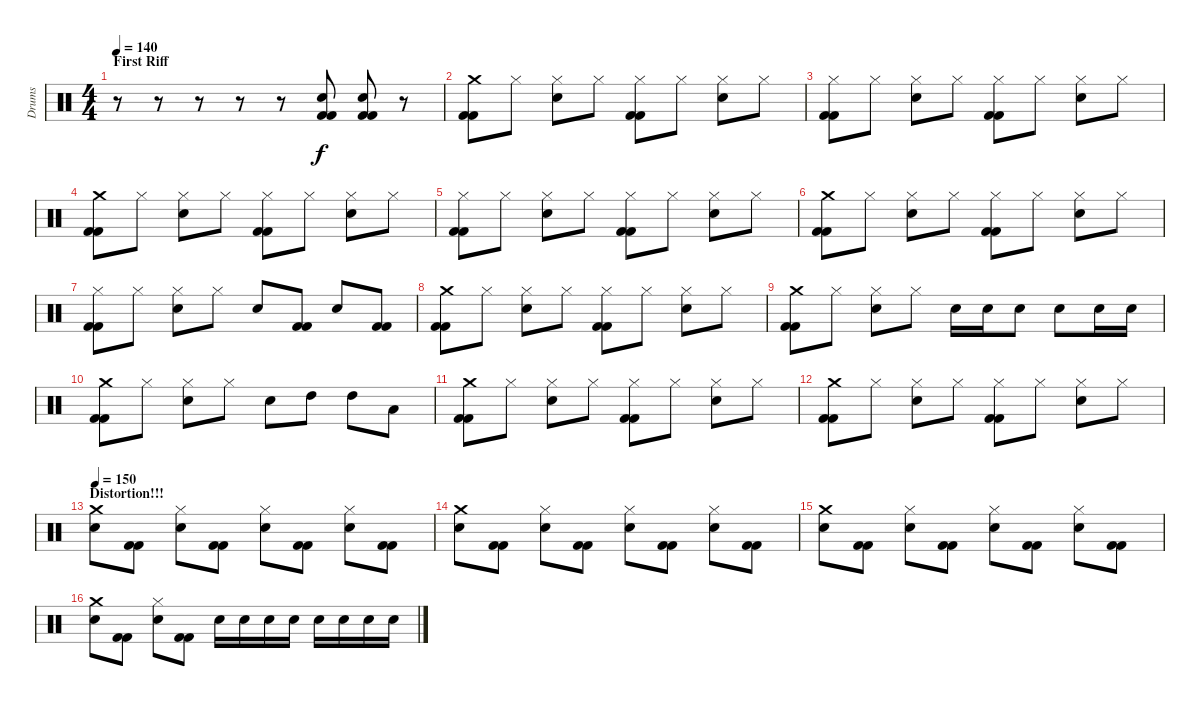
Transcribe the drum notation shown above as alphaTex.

\track ("Drums" "Drums") {instrument percussion}
\staff {score}
\articulation defaults
\ts (4 4)
\section ("" "First Riff")
\tempo 140
\clef neutral
\ks c
r.8{dy f} r.8 r.8 r.8 r.8 ("Electric Snare (hit)" "Kick (hit) 2" "Kick (hit) 2").8 ("Electric Snare (hit)" "Kick (hit) 2" "Kick (hit) 2").8 r.8 |
("Crash medium (hit)" "Kick (hit) 2" "Kick (hit) 2").8 "Hi-Hat (closed)".8 ("Electric Snare (hit)" "Hi-Hat (closed)").8 "Hi-Hat (closed)".8 ("Kick (hit) 2" "Kick (hit) 2" "Hi-Hat (closed)").8 "Hi-Hat (closed)".8 ("Hi-Hat (closed)" "Electric Snare (hit)").8 "Hi-Hat (closed)".8 |
("Hi-Hat (closed)" "Kick (hit) 2" "Kick (hit) 2").8 "Hi-Hat (closed)".8 ("Electric Snare (hit)" "Hi-Hat (closed)").8 "Hi-Hat (closed)".8 ("Kick (hit) 2" "Hi-Hat (closed)" "Kick (hit) 2").8 "Hi-Hat (closed)".8 ("Hi-Hat (closed)" "Electric Snare (hit)").8 "Hi-Hat (closed)".8 |
("Crash medium (hit)" "Kick (hit) 2" "Kick (hit) 2").8 "Hi-Hat (closed)".8 ("Electric Snare (hit)" "Hi-Hat (closed)").8 "Hi-Hat (closed)".8 ("Kick (hit) 2" "Kick (hit) 2" "Hi-Hat (closed)").8 "Hi-Hat (closed)".8 ("Hi-Hat (closed)" "Electric Snare (hit)").8 "Hi-Hat (closed)".8 |
("Hi-Hat (closed)" "Kick (hit) 2" "Kick (hit) 2").8 "Hi-Hat (closed)".8 ("Electric Snare (hit)" "Hi-Hat (closed)").8 "Hi-Hat (closed)".8 ("Kick (hit) 2" "Hi-Hat (closed)" "Kick (hit) 2").8 "Hi-Hat (closed)".8 ("Hi-Hat (closed)" "Electric Snare (hit)").8 "Hi-Hat (closed)".8 |
("Crash medium (hit)" "Kick (hit) 2" "Kick (hit) 2").8 "Hi-Hat (closed)".8 ("Electric Snare (hit)" "Hi-Hat (closed)").8 "Hi-Hat (closed)".8 ("Kick (hit) 2" "Kick (hit) 2" "Hi-Hat (closed)").8 "Hi-Hat (closed)".8 ("Hi-Hat (closed)" "Electric Snare (hit)").8 "Hi-Hat (closed)".8 |
("Hi-Hat (closed)" "Kick (hit) 2" "Kick (hit) 2").8 "Hi-Hat (closed)".8 ("Electric Snare (hit)" "Hi-Hat (closed)").8 "Hi-Hat (closed)".8 "Electric Snare (hit)".8 ("Kick (hit) 2" "Kick (hit) 2").8 "Electric Snare (hit)".8 ("Kick (hit) 2" "Kick (hit) 2").8 |
("Crash medium (hit)" "Kick (hit) 2" "Kick (hit) 2").8 "Hi-Hat (closed)".8 ("Electric Snare (hit)" "Hi-Hat (closed)").8 "Hi-Hat (closed)".8 ("Kick (hit) 2" "Kick (hit) 2" "Hi-Hat (closed)").8 "Hi-Hat (closed)".8 ("Hi-Hat (closed)" "Electric Snare (hit)").8 "Hi-Hat (closed)".8 |
("Crash medium (hit)" "Kick (hit) 2" "Kick (hit) 2").8 "Hi-Hat (closed)".8 ("Electric Snare (hit)" "Hi-Hat (closed)").8 "Hi-Hat (closed)".8 "Electric Snare (hit)".16 "Electric Snare (hit)".16 "Electric Snare (hit)".8 "Electric Snare (hit)".8 "Electric Snare (hit)".16 "Electric Snare (hit)".16 |
("Crash medium (hit)" "Kick (hit) 2" "Kick (hit) 2").8 "Hi-Hat (closed)".8 ("Electric Snare (hit)" "Hi-Hat (closed)").8 "Hi-Hat (closed)".8 "Electric Snare (hit)".8 "High Tom (hit)".8 "High Tom (hit)".8 "Low Tom (hit)".8 |
("Crash medium (hit)" "Kick (hit) 2" "Kick (hit) 2").8 "Hi-Hat (closed)".8 ("Electric Snare (hit)" "Hi-Hat (closed)").8 "Hi-Hat (closed)".8 ("Kick (hit) 2" "Kick (hit) 2" "Hi-Hat (closed)").8 "Hi-Hat (closed)".8 ("Hi-Hat (closed)" "Electric Snare (hit)").8 "Hi-Hat (closed)".8 |
("Crash medium (hit)" "Kick (hit) 2" "Kick (hit) 2").8 "Hi-Hat (closed)".8 ("Electric Snare (hit)" "Hi-Hat (closed)").8 "Hi-Hat (closed)".8 ("Kick (hit) 2" "Kick (hit) 2" "Hi-Hat (closed)").8 "Hi-Hat (closed)".8 ("Hi-Hat (closed)" "Electric Snare (hit)").8 "Hi-Hat (closed)".8 |
\section ("" "Distortion!!!")
\tempo 150
("Crash medium (hit)" "Electric Snare (hit)").8 ("Kick (hit) 2" "Kick (hit) 2").8 ("Electric Snare (hit)" "Hi-Hat (closed)").8 ("Kick (hit) 2" "Kick (hit) 2").8 ("Electric Snare (hit)" "Hi-Hat (closed)").8 ("Kick (hit) 2" "Kick (hit) 2").8 ("Electric Snare (hit)" "Hi-Hat (closed)").8 ("Kick (hit) 2" "Kick (hit) 2").8 |
("Crash medium (hit)" "Electric Snare (hit)").8 ("Kick (hit) 2" "Kick (hit) 2").8 ("Electric Snare (hit)" "Hi-Hat (closed)").8 ("Kick (hit) 2" "Kick (hit) 2").8 ("Electric Snare (hit)" "Hi-Hat (closed)").8 ("Kick (hit) 2" "Kick (hit) 2").8 ("Electric Snare (hit)" "Hi-Hat (closed)").8 ("Kick (hit) 2" "Kick (hit) 2").8 |
("Crash medium (hit)" "Electric Snare (hit)").8 ("Kick (hit) 2" "Kick (hit) 2").8 ("Electric Snare (hit)" "Hi-Hat (closed)").8 ("Kick (hit) 2" "Kick (hit) 2").8 ("Electric Snare (hit)" "Hi-Hat (closed)").8 ("Kick (hit) 2" "Kick (hit) 2").8 ("Electric Snare (hit)" "Hi-Hat (closed)").8 ("Kick (hit) 2" "Kick (hit) 2").8 |
("Crash medium (hit)" "Electric Snare (hit)").8 ("Kick (hit) 2" "Kick (hit) 2").8 ("Electric Snare (hit)" "Hi-Hat (closed)").8 ("Kick (hit) 2" "Kick (hit) 2").8 "Electric Snare (hit)".16 "Electric Snare (hit)".16 "Electric Snare (hit)".16 "Electric Snare (hit)".16 "Electric Snare (hit)".16 "Electric Snare (hit)".16 "Electric Snare (hit)".16 "Electric Snare (hit)".16
